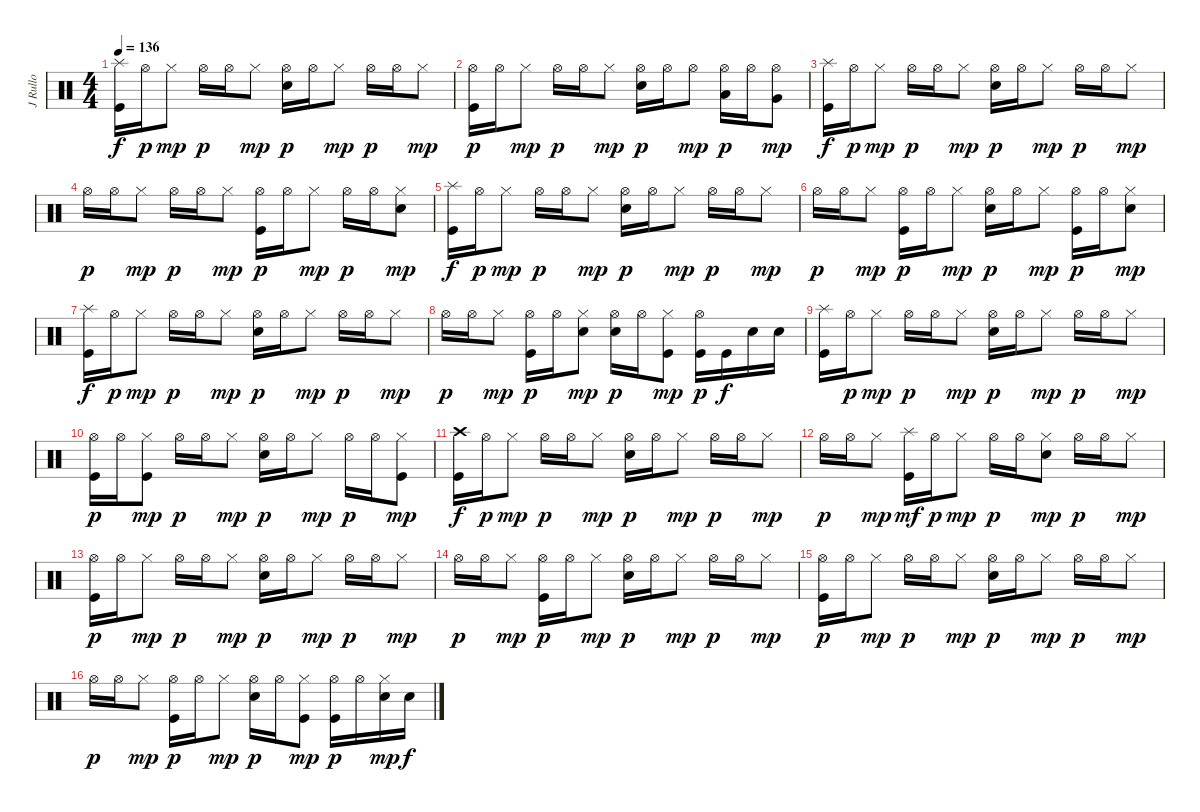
\track ("J Rullo" "J Rullo") {instrument percussion}
\staff {score}
\articulation defaults
\ts (4 4)
\tempo 136
\clef neutral
\ks c
("Splash (hit)" "Kick (hit)").16{dy f} "Hi-Hat (open)".16{dy p} "Hi-Hat (closed)".8{dy mp} "Hi-Hat (open)".16{dy p} "Hi-Hat (open)".16 "Hi-Hat (closed)".8{dy mp} ("Hi-Hat (open)" "Electric Snare (hit)").16{dy p} "Hi-Hat (open)".16 "Hi-Hat (closed)".8{dy mp} "Hi-Hat (open)".16{dy p} "Hi-Hat (open)".16 "Hi-Hat (closed)".8{dy mp} |
("Hi-Hat (open)" "Kick (hit)").16{dy p} "Hi-Hat (open)".16 "Hi-Hat (closed)".8{dy mp} "Hi-Hat (open)".16{dy p} "Hi-Hat (open)".16 "Hi-Hat (closed)".8{dy mp} ("Hi-Hat (open)" "Electric Snare (hit)").16{dy p} "Hi-Hat (open)".16 "Hi-Hat (open)".8{dy mp} ("Hi-Hat (open)" "Low Tom (hit)").16{dy p} "Hi-Hat (open)".16 ("Hi-Hat (open)" "Very Low Tom (hit)").8{dy mp} |
("Splash (hit)" "Kick (hit)").16{dy f} "Hi-Hat (open)".16{dy p} "Hi-Hat (closed)".8{dy mp} "Hi-Hat (open)".16{dy p} "Hi-Hat (open)".16 "Hi-Hat (closed)".8{dy mp} ("Hi-Hat (open)" "Electric Snare (hit)").16{dy p} "Hi-Hat (open)".16 "Hi-Hat (closed)".8{dy mp} "Hi-Hat (open)".16{dy p} "Hi-Hat (open)".16 "Hi-Hat (closed)".8{dy mp} |
"Hi-Hat (open)".16{dy p} "Hi-Hat (open)".16 "Hi-Hat (closed)".8{dy mp} "Hi-Hat (open)".16{dy p} "Hi-Hat (open)".16 "Hi-Hat (closed)".8{dy mp} ("Hi-Hat (open)" "Kick (hit)").16{dy p} "Hi-Hat (open)".16 "Hi-Hat (closed)".8{dy mp} "Hi-Hat (open)".16{dy p} "Hi-Hat (open)".16 ("Hi-Hat (closed)" "Electric Snare (hit)").8{dy mp} |
("Splash (hit)" "Kick (hit)").16{dy f} "Hi-Hat (open)".16{dy p} "Hi-Hat (closed)".8{dy mp} "Hi-Hat (open)".16{dy p} "Hi-Hat (open)".16 "Hi-Hat (closed)".8{dy mp} ("Hi-Hat (open)" "Electric Snare (hit)").16{dy p} "Hi-Hat (open)".16 "Hi-Hat (closed)".8{dy mp} "Hi-Hat (open)".16{dy p} "Hi-Hat (open)".16 "Hi-Hat (closed)".8{dy mp} |
"Hi-Hat (open)".16{dy p} "Hi-Hat (open)".16 "Hi-Hat (closed)".8{dy mp} ("Hi-Hat (open)" "Kick (hit)").16{dy p} "Hi-Hat (open)".16 "Hi-Hat (closed)".8{dy mp} ("Hi-Hat (open)" "Electric Snare (hit)").16{dy p} "Hi-Hat (open)".16 "Hi-Hat (closed)".8{dy mp} ("Hi-Hat (open)" "Kick (hit)").16{dy p} "Hi-Hat (open)".16 ("Hi-Hat (closed)" "Electric Snare (hit)").8{dy mp} |
("Splash (hit)" "Kick (hit)").16{dy f} "Hi-Hat (open)".16{dy p} "Hi-Hat (closed)".8{dy mp} "Hi-Hat (open)".16{dy p} "Hi-Hat (open)".16 "Hi-Hat (closed)".8{dy mp} ("Hi-Hat (open)" "Electric Snare (hit)").16{dy p} "Hi-Hat (open)".16 "Hi-Hat (closed)".8{dy mp} "Hi-Hat (open)".16{dy p} "Hi-Hat (open)".16 "Hi-Hat (closed)".8{dy mp} |
"Hi-Hat (open)".16{dy p} "Hi-Hat (open)".16 "Hi-Hat (closed)".8{dy mp} ("Hi-Hat (open)" "Kick (hit)").16{dy p} "Hi-Hat (open)".16 ("Hi-Hat (closed)" "Electric Snare (hit)").8{dy mp} ("Hi-Hat (open)" "Electric Snare (hit)").16{dy p} "Hi-Hat (open)".16 ("Hi-Hat (closed)" "Kick (hit)").8{dy mp} ("Hi-Hat (open)" "Kick (hit)").16{dy p} "Kick (hit)".16{dy f} "Electric Snare (hit)".16 "Electric Snare (hit)".16 |
("Splash (hit)" "Kick (hit)").16 "Hi-Hat (open)".16{dy p} "Hi-Hat (closed)".8{dy mp} "Hi-Hat (open)".16{dy p} "Hi-Hat (open)".16 "Hi-Hat (closed)".8{dy mp} ("Hi-Hat (open)" "Electric Snare (hit)").16{dy p} "Hi-Hat (open)".16 "Hi-Hat (closed)".8{dy mp} "Hi-Hat (open)".16{dy p} "Hi-Hat (open)".16 "Hi-Hat (closed)".8{dy mp} |
("Hi-Hat (open)" "Kick (hit)").16{dy p} "Hi-Hat (open)".16 ("Hi-Hat (closed)" "Kick (hit)").8{dy mp} "Hi-Hat (open)".16{dy p} "Hi-Hat (open)".16 "Hi-Hat (closed)".8{dy mp} ("Hi-Hat (open)" "Electric Snare (hit)").16{dy p} "Hi-Hat (open)".16 "Hi-Hat (closed)".8{dy mp} "Hi-Hat (open)".16{dy p} "Hi-Hat (open)".16 ("Hi-Hat (closed)" "Kick (hit)").8{dy mp} |
("Crash high (hit)" "Kick (hit)").16{dy f} "Hi-Hat (open)".16{dy p} "Hi-Hat (closed)".8{dy mp} "Hi-Hat (open)".16{dy p} "Hi-Hat (open)".16 "Hi-Hat (closed)".8{dy mp} ("Hi-Hat (open)" "Electric Snare (hit)").16{dy p} "Hi-Hat (open)".16 "Hi-Hat (closed)".8{dy mp} "Hi-Hat (open)".16{dy p} "Hi-Hat (open)".16 "Hi-Hat (closed)".8{dy mp} |
"Hi-Hat (open)".16{dy p} "Hi-Hat (open)".16 "Hi-Hat (closed)".8{dy mp} ("Splash (hit)" "Kick (hit)").16{dy mf} "Hi-Hat (open)".16{dy p} "Hi-Hat (closed)".8{dy mp} "Hi-Hat (open)".16{dy p} "Hi-Hat (open)".16 ("Hi-Hat (closed)" "Electric Snare (hit)").8{dy mp} "Hi-Hat (open)".16{dy p} "Hi-Hat (open)".16 "Hi-Hat (closed)".8{dy mp} |
("Hi-Hat (open)" "Kick (hit)").16{dy p} "Hi-Hat (open)".16 "Hi-Hat (closed)".8{dy mp} "Hi-Hat (open)".16{dy p} "Hi-Hat (open)".16 "Hi-Hat (closed)".8{dy mp} ("Hi-Hat (open)" "Electric Snare (hit)").16{dy p} "Hi-Hat (open)".16 "Hi-Hat (closed)".8{dy mp} "Hi-Hat (open)".16{dy p} "Hi-Hat (open)".16 "Hi-Hat (closed)".8{dy mp} |
"Hi-Hat (open)".16{dy p} "Hi-Hat (open)".16 "Hi-Hat (closed)".8{dy mp} ("Hi-Hat (open)" "Kick (hit)").16{dy p} "Hi-Hat (open)".16 "Hi-Hat (closed)".8{dy mp} ("Hi-Hat (open)" "Electric Snare (hit)").16{dy p} "Hi-Hat (open)".16 "Hi-Hat (closed)".8{dy mp} "Hi-Hat (open)".16{dy p} "Hi-Hat (open)".16 "Hi-Hat (closed)".8{dy mp} |
("Hi-Hat (open)" "Kick (hit)").16{dy p} "Hi-Hat (open)".16 "Hi-Hat (closed)".8{dy mp} "Hi-Hat (open)".16{dy p} "Hi-Hat (open)".16 "Hi-Hat (closed)".8{dy mp} ("Hi-Hat (open)" "Electric Snare (hit)").16{dy p} "Hi-Hat (open)".16 "Hi-Hat (closed)".8{dy mp} "Hi-Hat (open)".16{dy p} "Hi-Hat (open)".16 "Hi-Hat (closed)".8{dy mp} |
"Hi-Hat (open)".16{dy p} "Hi-Hat (open)".16 "Hi-Hat (closed)".8{dy mp} ("Hi-Hat (open)" "Kick (hit)").16{dy p} "Hi-Hat (open)".16 "Hi-Hat (closed)".8{dy mp} ("Hi-Hat (open)" "Electric Snare (hit)").16{dy p} "Hi-Hat (open)".16 ("Hi-Hat (closed)" "Kick (hit)").8{dy mp} ("Hi-Hat (open)" "Kick (hit)").16{dy p} "Hi-Hat (open)".16 ("Hi-Hat (closed)" "Electric Snare (hit)").16{dy mp} "Electric Snare (hit)".16{dy f}
